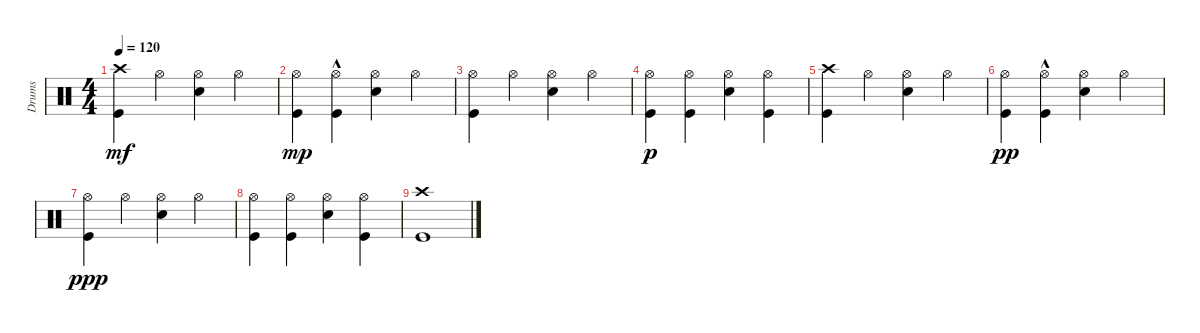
\track ("Drums" "Drums") {instrument percussion}
\staff {score}
\articulation defaults
\ts (4 4)
\tempo 120
\clef neutral
\ks c
("Kick (hit)" "Crash high (hit)").4{dy mf} "Hi-Hat (open)".4 ("Snare (hit) 2" "Hi-Hat (open)").4 "Hi-Hat (open)".4 |
("Kick (hit)" "Hi-Hat (open)").4{dy mp} ("Kick (hit)"{hac} "Hi-Hat (open)").4 ("Snare (hit) 2" "Hi-Hat (open)").4 "Hi-Hat (open)".4 |
("Kick (hit)" "Hi-Hat (open)").4 "Hi-Hat (open)".4 ("Snare (hit) 2" "Hi-Hat (open)").4 "Hi-Hat (open)".4 |
("Kick (hit)" "Hi-Hat (open)").4{dy p} ("Kick (hit)" "Hi-Hat (open)").4 ("Snare (hit) 2" "Hi-Hat (open)").4 ("Kick (hit)" "Hi-Hat (open)").4 |
("Kick (hit)" "Crash high (hit)").4 "Hi-Hat (open)".4 ("Snare (hit) 2" "Hi-Hat (open)").4 "Hi-Hat (open)".4 |
("Kick (hit)" "Hi-Hat (open)").4{dy pp} ("Kick (hit)"{hac} "Hi-Hat (open)").4 ("Snare (hit) 2" "Hi-Hat (open)").4 "Hi-Hat (open)".4 |
("Kick (hit)" "Hi-Hat (open)").4{dy ppp} "Hi-Hat (open)".4 ("Snare (hit) 2" "Hi-Hat (open)").4 "Hi-Hat (open)".4 |
("Kick (hit)" "Hi-Hat (open)").4 ("Kick (hit)" "Hi-Hat (open)").4 ("Snare (hit) 2" "Hi-Hat (open)").4 ("Kick (hit)" "Hi-Hat (open)").4 |
("Kick (hit)" "Crash high (hit)").1
